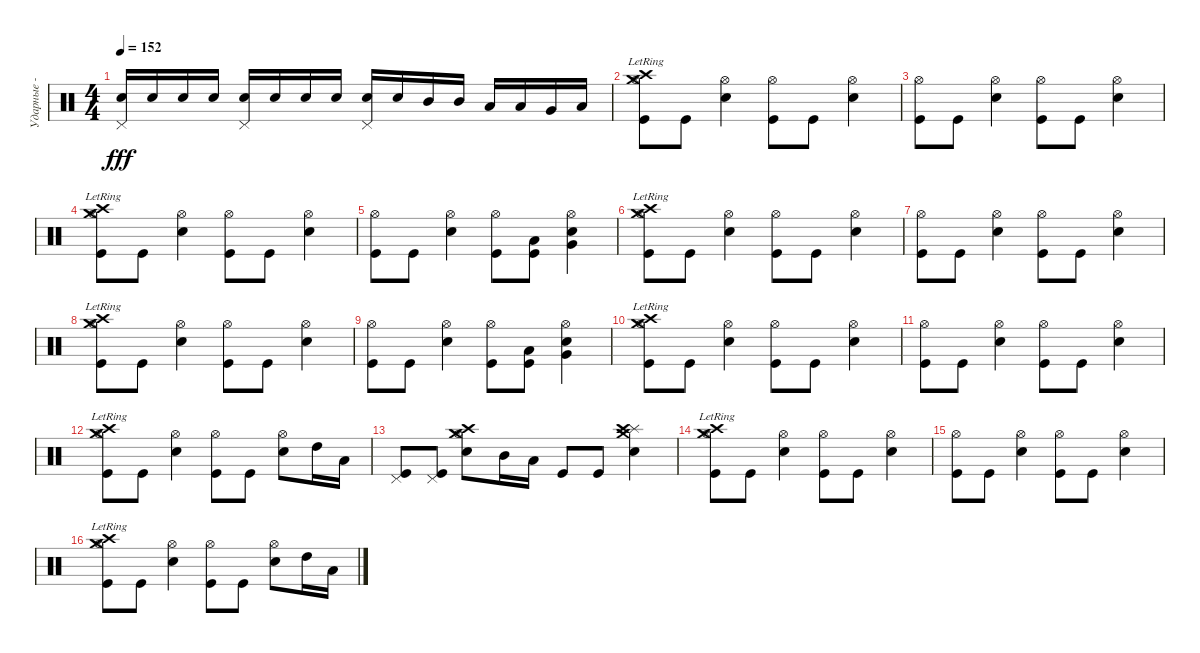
\track ("Ударные - Трэвис" "Ударные - ") {instrument percussion}
\staff {score}
\articulation defaults
\ts (4 4)
\tempo 152
\clef neutral
\ks c
("Pedal Hi-Hat (hit)" "Snare (hit) 2").16{dy fff} "Snare (hit) 2".16 "Snare (hit) 2".16 "Snare (hit) 2".16 ("Pedal Hi-Hat (hit)" "Snare (hit) 2").16 "Snare (hit) 2".16 "Snare (hit) 2".16 "Snare (hit) 2".16 ("Pedal Hi-Hat (hit)" "Snare (hit) 2").16 "Snare (hit) 2".16 "Mid Tom (hit)".16 "Mid Tom (hit)".16 "Low Tom (hit)".16 "Low Tom (hit)".16 "Very Low Tom (hit)".16 "Low Floor Tom (hit)".16 |
("Crash high (hit)"{lr} "Hi-Hat (open)" "Crash medium (hit)"{lr} "Kick (hit)").8 "Kick (hit)".8 ("Hi-Hat (open)" "Snare (hit) 2").4 ("Hi-Hat (open)" "Kick (hit)").8 "Kick (hit)".8 ("Hi-Hat (open)" "Snare (hit) 2").4 |
("Hi-Hat (open)" "Kick (hit)").8 "Kick (hit)".8 ("Hi-Hat (open)" "Snare (hit) 2").4 ("Hi-Hat (open)" "Kick (hit)").8 "Kick (hit)".8 ("Hi-Hat (open)" "Snare (hit) 2").4 |
("Crash high (hit)"{lr} "Hi-Hat (open)" "Crash medium (hit)"{lr} "Kick (hit)").8 "Kick (hit)".8 ("Hi-Hat (open)" "Snare (hit) 2").4 ("Hi-Hat (open)" "Kick (hit)").8 "Kick (hit)".8 ("Hi-Hat (open)" "Snare (hit) 2").4 |
("Hi-Hat (open)" "Kick (hit)").8 "Kick (hit)".8 ("Hi-Hat (open)" "Snare (hit) 2").4 ("Hi-Hat (open)" "Kick (hit)").8 ("Low Tom (hit)" "Kick (hit)").8 ("Hi-Hat (open)" "Very Low Tom (hit)" "Snare (hit) 2").4 |
("Crash high (hit)"{lr} "Hi-Hat (open)" "Crash medium (hit)"{lr} "Kick (hit)").8 "Kick (hit)".8 ("Hi-Hat (open)" "Snare (hit) 2").4 ("Hi-Hat (open)" "Kick (hit)").8 "Kick (hit)".8 ("Hi-Hat (open)" "Snare (hit) 2").4 |
("Hi-Hat (open)" "Kick (hit)").8 "Kick (hit)".8 ("Hi-Hat (open)" "Snare (hit) 2").4 ("Hi-Hat (open)" "Kick (hit)").8 "Kick (hit)".8 ("Hi-Hat (open)" "Snare (hit) 2").4 |
("Crash high (hit)"{lr} "Hi-Hat (open)" "Crash medium (hit)"{lr} "Kick (hit)").8 "Kick (hit)".8 ("Hi-Hat (open)" "Snare (hit) 2").4 ("Hi-Hat (open)" "Kick (hit)").8 "Kick (hit)".8 ("Hi-Hat (open)" "Snare (hit) 2").4 |
("Hi-Hat (open)" "Kick (hit)").8 "Kick (hit)".8 ("Hi-Hat (open)" "Snare (hit) 2").4 ("Hi-Hat (open)" "Kick (hit)").8 ("Low Tom (hit)" "Kick (hit)").8 ("Hi-Hat (open)" "Very Low Tom (hit)" "Snare (hit) 2").4 |
("Crash high (hit)"{lr} "Hi-Hat (open)" "Crash medium (hit)"{lr} "Kick (hit)").8 "Kick (hit)".8 ("Hi-Hat (open)" "Snare (hit) 2").4 ("Hi-Hat (open)" "Kick (hit)").8 "Kick (hit)".8 ("Hi-Hat (open)" "Snare (hit) 2").4 |
("Hi-Hat (open)" "Kick (hit)").8 "Kick (hit)".8 ("Hi-Hat (open)" "Snare (hit) 2").4 ("Hi-Hat (open)" "Kick (hit)").8 "Kick (hit)".8 ("Hi-Hat (open)" "Snare (hit) 2").4 |
("Crash high (hit)"{lr} "Hi-Hat (open)" "Crash medium (hit)"{lr} "Kick (hit)").8 "Kick (hit)".8 ("Hi-Hat (open)" "Snare (hit) 2").4 ("Hi-Hat (open)" "Kick (hit)").8 "Kick (hit)".8 ("Hi-Hat (open)" "Snare (hit) 2").8 "High Tom (hit)".16 "Low Tom (hit)".16 |
("Pedal Hi-Hat (hit)" "Kick (hit)").8 ("Pedal Hi-Hat (hit)" "Kick (hit)").8 ("Crash high (hit)" "Crash medium (hit)" "Hi-Hat (open)" "Snare (hit) 2").8 "Mid Tom (hit)".16 "Low Tom (hit)".16 "Kick (hit)".8 "Kick (hit)".8 ("Crash medium (hit)" "Splash (hit)" "Crash high (hit)" "Snare (hit) 2").4 |
("Crash high (hit)"{lr} "Hi-Hat (open)" "Crash medium (hit)"{lr} "Kick (hit)").8 "Kick (hit)".8 ("Hi-Hat (open)" "Snare (hit) 2").4 ("Hi-Hat (open)" "Kick (hit)").8 "Kick (hit)".8 ("Hi-Hat (open)" "Snare (hit) 2").4 |
("Hi-Hat (open)" "Kick (hit)").8 "Kick (hit)".8 ("Hi-Hat (open)" "Snare (hit) 2").4 ("Hi-Hat (open)" "Kick (hit)").8 "Kick (hit)".8 ("Hi-Hat (open)" "Snare (hit) 2").4 |
("Crash high (hit)"{lr} "Hi-Hat (open)" "Crash medium (hit)"{lr} "Kick (hit)").8 "Kick (hit)".8 ("Hi-Hat (open)" "Snare (hit) 2").4 ("Hi-Hat (open)" "Kick (hit)").8 "Kick (hit)".8 ("Hi-Hat (open)" "Snare (hit) 2").8 "High Tom (hit)".16 "Low Tom (hit)".16
